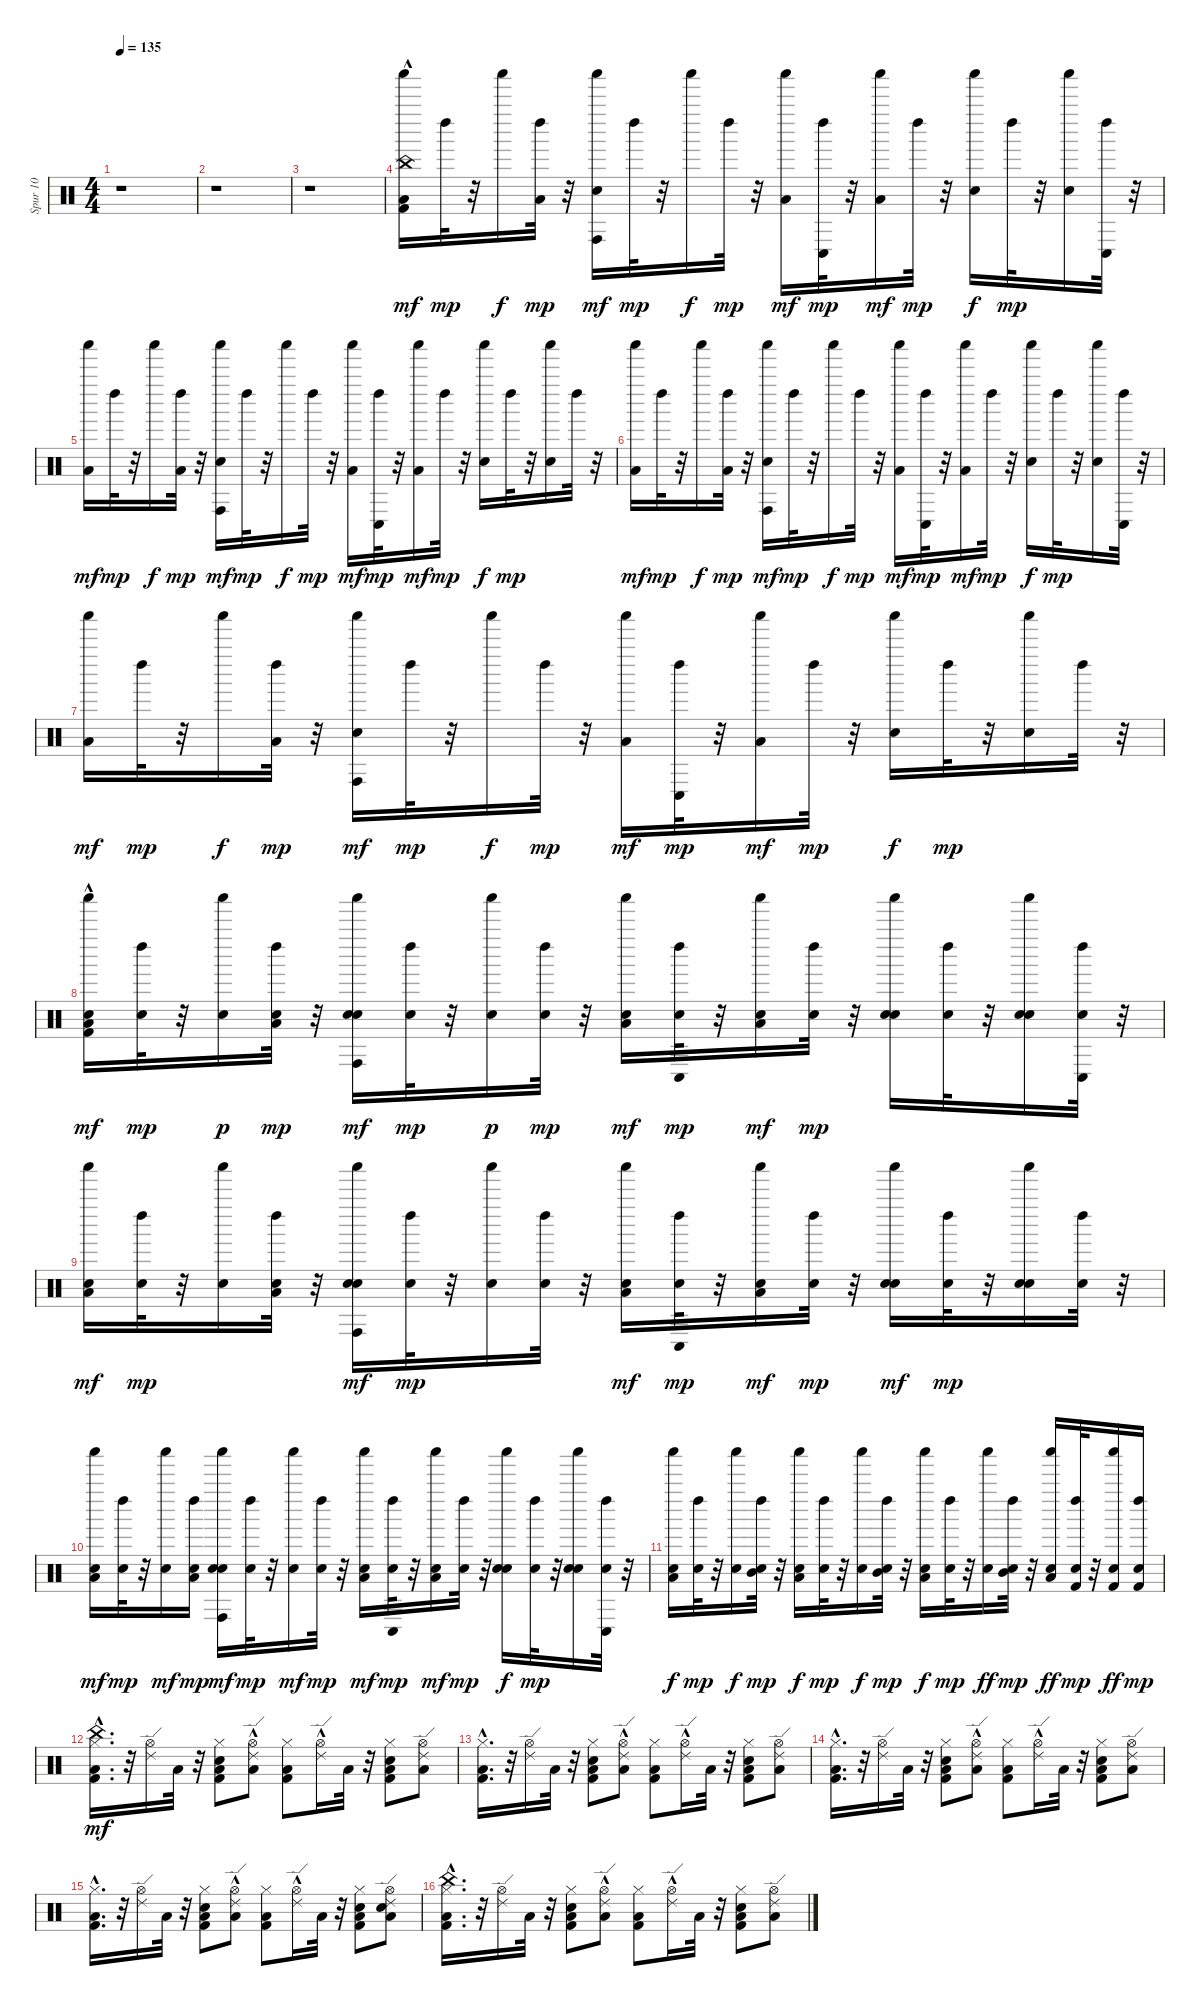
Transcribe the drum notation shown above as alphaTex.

\track ("Spur 10" "Spur 10") {instrument percussion}
\staff {score}
\articulation defaults
\ts (4 4)
\tempo 135
\clef neutral
\ks c
r.1{dy mf} |
r.1 |
r.1 |
("Kick (hit) 2"{hac} "Low Tom (hit)" "China (hit)" "Shaker (hit)").16 "Left Maraca (hit)".32{dy mp} r.32 "Shaker (hit)".16{dy f} ("Low Tom (hit)" "Left Maraca (hit)").32{dy mp} r.32 ("Conga high (hit)" "Hand Clap (hit)" "Shaker (hit)").16{dy mf} "Left Maraca (hit)".32{dy mp} r.32 "Shaker (hit)".16{dy f} "Left Maraca (hit)".32{dy mp} r.32 ("Low Tom (hit)" "Shaker (hit)").16{dy mf} ("Conga low (hit)" "Left Maraca (hit)").32{dy mp} r.32 ("Low Tom (hit)" "Shaker (hit)").16{dy mf} "Left Maraca (hit)".32{dy mp} r.32 ("Hand Clap (hit)" "Shaker (hit)").16{dy f} "Left Maraca (hit)".32{dy mp} r.32 ("Hand Clap (hit)" "Shaker (hit)").16 ("Conga low (hit)" "Left Maraca (hit)").32 r.32 |
("Low Tom (hit)" "Shaker (hit)").16{dy mf} "Left Maraca (hit)".32{dy mp} r.32 "Shaker (hit)".16{dy f} ("Low Tom (hit)" "Left Maraca (hit)").32{dy mp} r.32 ("Conga high (hit)" "Hand Clap (hit)" "Shaker (hit)").16{dy mf} "Left Maraca (hit)".32{dy mp} r.32 "Shaker (hit)".16{dy f} "Left Maraca (hit)".32{dy mp} r.32 ("Low Tom (hit)" "Shaker (hit)").16{dy mf} ("Conga low (hit)" "Left Maraca (hit)").32{dy mp} r.32 ("Low Tom (hit)" "Shaker (hit)").16{dy mf} "Left Maraca (hit)".32{dy mp} r.32 ("Hand Clap (hit)" "Shaker (hit)").16{dy f} "Left Maraca (hit)".32{dy mp} r.32 ("Hand Clap (hit)" "Shaker (hit)").16 "Left Maraca (hit)".32 r.32 |
("Low Tom (hit)" "Shaker (hit)").16{dy mf} "Left Maraca (hit)".32{dy mp} r.32 "Shaker (hit)".16{dy f} ("Low Tom (hit)" "Left Maraca (hit)").32{dy mp} r.32 ("Conga high (hit)" "Hand Clap (hit)" "Shaker (hit)").16{dy mf} "Left Maraca (hit)".32{dy mp} r.32 "Shaker (hit)".16{dy f} "Left Maraca (hit)".32{dy mp} r.32 ("Low Tom (hit)" "Shaker (hit)").16{dy mf} ("Conga low (hit)" "Left Maraca (hit)").32{dy mp} r.32 ("Low Tom (hit)" "Shaker (hit)").16{dy mf} "Left Maraca (hit)".32{dy mp} r.32 ("Hand Clap (hit)" "Shaker (hit)").16{dy f} "Left Maraca (hit)".32{dy mp} r.32 ("Hand Clap (hit)" "Shaker (hit)").16 ("Conga low (hit)" "Left Maraca (hit)").32 r.32 |
("Low Tom (hit)" "Shaker (hit)").16{dy mf} "Left Maraca (hit)".32{dy mp} r.32 "Shaker (hit)".16{dy f} ("Low Tom (hit)" "Left Maraca (hit)").32{dy mp} r.32 ("Conga high (hit)" "Hand Clap (hit)" "Shaker (hit)").16{dy mf} "Left Maraca (hit)".32{dy mp} r.32 "Shaker (hit)".16{dy f} "Left Maraca (hit)".32{dy mp} r.32 ("Low Tom (hit)" "Shaker (hit)").16{dy mf} ("Conga low (hit)" "Left Maraca (hit)").32{dy mp} r.32 ("Low Tom (hit)" "Shaker (hit)").16{dy mf} "Left Maraca (hit)".32{dy mp} r.32 ("Hand Clap (hit)" "Shaker (hit)").16{dy f} "Left Maraca (hit)".32{dy mp} r.32 ("Hand Clap (hit)" "Shaker (hit)").16 "Left Maraca (hit)".32 r.32 |
("Snare (hit) 2" "Kick (hit) 2"{hac} "Low Tom (hit)" "Shaker (hit)").16{dy mf} ("Snare (hit) 2" "Left Maraca (hit)").32{dy mp} r.32 ("Snare (hit) 2" "Shaker (hit)").16{dy p} ("Snare (hit) 2" "Low Tom (hit)" "Left Maraca (hit)").32{dy mp} r.32 ("Snare (hit) 2" "Conga high (hit)" "Hand Clap (hit)" "Shaker (hit)").16{dy mf} ("Snare (hit) 2" "Left Maraca (hit)").32{dy mp} r.32 ("Snare (hit) 2" "Shaker (hit)").16{dy p} ("Snare (hit) 2" "Left Maraca (hit)").32{dy mp} r.32 ("Snare (hit) 2" "Low Tom (hit)" "Shaker (hit)").16{dy mf} ("Snare (hit) 2" "Conga low (hit)" "Left Maraca (hit)").32{dy mp} r.32 ("Snare (hit) 2" "Low Tom (hit)" "Shaker (hit)").16{dy mf} ("Snare (hit) 2" "Left Maraca (hit)").32{dy mp} r.32 ("Snare (hit) 2" "Hand Clap (hit)" "Shaker (hit)").16 ("Snare (hit) 2" "Left Maraca (hit)").32 r.32 ("Snare (hit) 2" "Hand Clap (hit)" "Shaker (hit)").16 ("Snare (hit) 2" "Conga low (hit)" "Left Maraca (hit)").32 r.32 |
("Snare (hit) 2" "Low Tom (hit)" "Shaker (hit)").16{dy mf} ("Snare (hit) 2" "Left Maraca (hit)").32{dy mp} r.32 ("Snare (hit) 2" "Shaker (hit)").16 ("Snare (hit) 2" "Low Tom (hit)" "Left Maraca (hit)").32 r.32 ("Snare (hit) 2" "Conga high (hit)" "Hand Clap (hit)" "Shaker (hit)").16{dy mf} ("Snare (hit) 2" "Left Maraca (hit)").32{dy mp} r.32 ("Snare (hit) 2" "Shaker (hit)").16 ("Snare (hit) 2" "Left Maraca (hit)").32 r.32 ("Snare (hit) 2" "Low Tom (hit)" "Shaker (hit)").16{dy mf} ("Snare (hit) 2" "Conga low (hit)" "Left Maraca (hit)").32{dy mp} r.32 ("Snare (hit) 2" "Low Tom (hit)" "Shaker (hit)").16{dy mf} ("Snare (hit) 2" "Left Maraca (hit)").32{dy mp} r.32 ("Snare (hit) 2" "Hand Clap (hit)" "Shaker (hit)").16{dy mf} ("Snare (hit) 2" "Left Maraca (hit)").32{dy mp} r.32 ("Snare (hit) 2" "Hand Clap (hit)" "Shaker (hit)").16 ("Snare (hit) 2" "Left Maraca (hit)").32 r.32 |
("Snare (hit) 2" "Low Tom (hit)" "Shaker (hit)").16{dy mf} ("Snare (hit) 2" "Left Maraca (hit)").32{dy mp} r.32 ("Snare (hit) 2" "Shaker (hit)").16{dy mf} ("Snare (hit) 2" "Low Tom (hit)" "Left Maraca (hit)").16{dy mp} ("Snare (hit) 2" "Conga high (hit)" "Hand Clap (hit)" "Shaker (hit)").16{dy mf} ("Snare (hit) 2" "Left Maraca (hit)").32{dy mp} r.32 ("Snare (hit) 2" "Shaker (hit)").16{dy mf} ("Snare (hit) 2" "Left Maraca (hit)").32{dy mp} r.32 ("Snare (hit) 2" "Low Tom (hit)" "Shaker (hit)").16{dy mf} ("Snare (hit) 2" "Conga low (hit)" "Left Maraca (hit)").32{dy mp} r.32 ("Snare (hit) 2" "Low Tom (hit)" "Shaker (hit)").16{dy mf} ("Snare (hit) 2" "Left Maraca (hit)").32{dy mp} r.32 ("Snare (hit) 2" "Hand Clap (hit)" "Shaker (hit)").16{dy f} ("Snare (hit) 2" "Left Maraca (hit)").32{dy mp} r.32 ("Snare (hit) 2" "Hand Clap (hit)" "Shaker (hit)").16 ("Snare (hit) 2" "Conga low (hit)" "Left Maraca (hit)").32 r.32 |
("Snare (hit) 2" "Low Tom (hit)" "Shaker (hit)").16{dy f} ("Snare (hit) 2" "Left Maraca (hit)").32{dy mp} r.32 ("Snare (hit) 2" "Shaker (hit)").16{dy f} ("Snare (hit) 2" "Mid Tom (hit)" "Left Maraca (hit)").32{dy mp} r.32 ("Snare (hit) 2" "Low Tom (hit)" "Shaker (hit)").16{dy f} ("Snare (hit) 2" "Left Maraca (hit)").32{dy mp} r.32 ("Snare (hit) 2" "Shaker (hit)").16{dy f} ("Snare (hit) 2" "Mid Tom (hit)" "Left Maraca (hit)").32{dy mp} r.32 ("Snare (hit) 2" "Low Tom (hit)" "Shaker (hit)").16{dy f} ("Snare (hit) 2" "Left Maraca (hit)").32{dy mp} r.32 ("Snare (hit) 2" "Shaker (hit)").16{dy ff} ("Snare (hit) 2" "Mid Tom (hit)" "Left Maraca (hit)").32{dy mp} r.32 ("Snare (hit) 2" "Low Tom (hit)" "Shaker (hit)").16{dy ff} ("Snare (hit) 2" "Kick (hit) 2" "Left Maraca (hit)").32{dy mp} r.32 ("Snare (hit) 2" "Kick (hit) 2" "Shaker (hit)").16{dy ff} ("Snare (hit) 2" "Kick (hit) 2" "Left Maraca (hit)").16{dy mp} |
("Kick (hit) 2" "Low Tom (hit)" "Hi-Hat (closed)"{hac} "China (hit)").16{d dy mf} r.32 ("Ride (edge) 2" "Hi-Hat (open)").16 "Low Tom (hit)".32 r.32 ("Kick (hit) 2" "Hand Clap (hit)" "Low Tom (hit)" "Hi-Hat (closed)").8 ("Low Tom (hit)" "Hi-Hat (open)" "Ride (edge) 2"{hac}).8 ("Kick (hit) 2" "Low Tom (hit)" "Hi-Hat (closed)").8 ("Hi-Hat (open)" "Ride (edge) 2"{hac}).16 "Low Tom (hit)".32 r.32 ("Kick (hit) 2" "Hand Clap (hit)" "Low Tom (hit)" "Hi-Hat (closed)").8 ("Low Tom (hit)" "Hi-Hat (open)" "Ride (edge) 2").8 |
("Kick (hit) 2" "Low Tom (hit)" "Hi-Hat (closed)"{hac}).16{d} r.32 ("Ride (edge) 2" "Hi-Hat (open)").16 "Low Tom (hit)".32 r.32 ("Kick (hit) 2" "Hand Clap (hit)" "Low Tom (hit)" "Hi-Hat (closed)").8 ("Low Tom (hit)" "Hi-Hat (open)" "Ride (edge) 2"{hac}).8 ("Kick (hit) 2" "Low Tom (hit)" "Hi-Hat (closed)").8 ("Hi-Hat (open)" "Ride (edge) 2"{hac}).16 "Low Tom (hit)".32 r.32 ("Kick (hit) 2" "Hand Clap (hit)" "Low Tom (hit)" "Hi-Hat (closed)").8 ("Low Tom (hit)" "Hi-Hat (open)" "Ride (edge) 2").8 |
("Kick (hit) 2" "Low Tom (hit)" "Hi-Hat (closed)"{hac}).16{d} r.32 ("Ride (edge) 2" "Hi-Hat (open)").16 "Low Tom (hit)".32 r.32 ("Kick (hit) 2" "Hand Clap (hit)" "Low Tom (hit)" "Hi-Hat (closed)").8 ("Low Tom (hit)" "Hi-Hat (open)" "Ride (edge) 2"{hac}).8 ("Kick (hit) 2" "Low Tom (hit)" "Hi-Hat (closed)").8 ("Hi-Hat (open)" "Ride (edge) 2"{hac}).16 "Low Tom (hit)".32 r.32 ("Kick (hit) 2" "Hand Clap (hit)" "Low Tom (hit)" "Hi-Hat (closed)").8 ("Low Tom (hit)" "Hi-Hat (open)" "Ride (edge) 2").8 |
("Kick (hit) 2" "Low Tom (hit)" "Hi-Hat (closed)"{hac}).16{d} r.32 ("Ride (edge) 2" "Hi-Hat (open)").16 "Low Tom (hit)".32 r.32 ("Kick (hit) 2" "Hand Clap (hit)" "Low Tom (hit)" "Hi-Hat (closed)").8 ("Low Tom (hit)" "Hi-Hat (open)" "Ride (edge) 2"{hac}).8 ("Kick (hit) 2" "Low Tom (hit)" "Hi-Hat (closed)").8 ("Hi-Hat (open)" "Ride (edge) 2"{hac}).16 "Low Tom (hit)".32 r.32 ("Kick (hit) 2" "Hand Clap (hit)" "Low Tom (hit)" "Hi-Hat (closed)").8 ("Hand Clap (hit)" "Low Tom (hit)" "Hi-Hat (open)" "Ride (edge) 2").8 |
("Kick (hit) 2" "Low Tom (hit)" "Hi-Hat (closed)"{hac} "China (hit)").16{d} r.32 ("Ride (edge) 2" "Hi-Hat (open)").16 "Low Tom (hit)".32 r.32 ("Kick (hit) 2" "Hand Clap (hit)" "Low Tom (hit)" "Hi-Hat (closed)").8 ("Low Tom (hit)" "Hi-Hat (open)" "Ride (edge) 2"{hac}).8 ("Kick (hit) 2" "Low Tom (hit)" "Hi-Hat (closed)").8 ("Hi-Hat (open)" "Ride (edge) 2"{hac}).16 "Low Tom (hit)".32 r.32 ("Kick (hit) 2" "Hand Clap (hit)" "Low Tom (hit)" "Hi-Hat (closed)").8 ("Low Tom (hit)" "Hi-Hat (open)" "Ride (edge) 2").8
